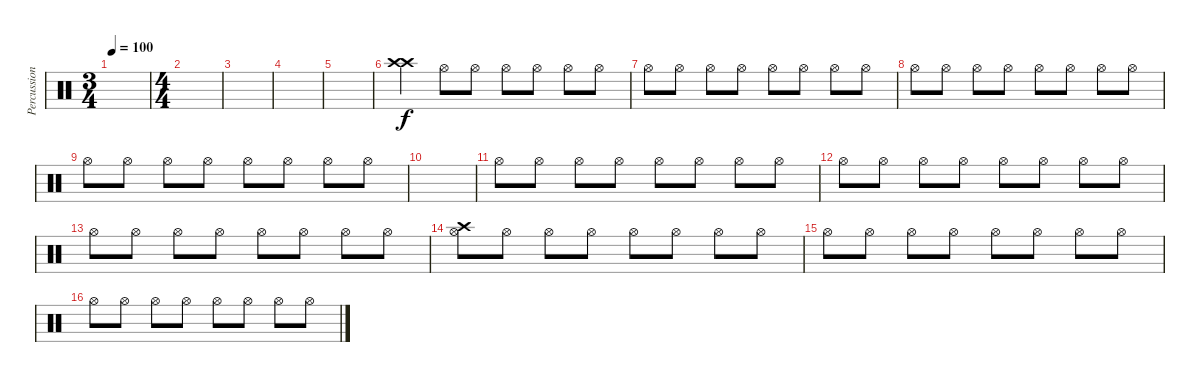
\track ("Percussions" "Percussion") {instrument percussion}
\staff {score}
\articulation defaults
\ts (3 4)
\tempo 100
\clef neutral
\ks c
|
\ts (4 4)
|
|
|
|
("Crash high (hit)" "Crash high (hit)").4 "Hi-Hat (open)".8 "Hi-Hat (open)".8 "Hi-Hat (open)".8 "Hi-Hat (open)".8 "Hi-Hat (open)".8 "Hi-Hat (open)".8 |
"Hi-Hat (open)".8 "Hi-Hat (open)".8 "Hi-Hat (open)".8 "Hi-Hat (open)".8 "Hi-Hat (open)".8 "Hi-Hat (open)".8 "Hi-Hat (open)".8 "Hi-Hat (open)".8 |
"Hi-Hat (open)".8 "Hi-Hat (open)".8 "Hi-Hat (open)".8 "Hi-Hat (open)".8 "Hi-Hat (open)".8 "Hi-Hat (open)".8 "Hi-Hat (open)".8 "Hi-Hat (open)".8 |
"Hi-Hat (open)".8 "Hi-Hat (open)".8 "Hi-Hat (open)".8 "Hi-Hat (open)".8 "Hi-Hat (open)".8 "Hi-Hat (open)".8 "Hi-Hat (open)".8 "Hi-Hat (open)".8 |
|
"Hi-Hat (open)".8 "Hi-Hat (open)".8 "Hi-Hat (open)".8 "Hi-Hat (open)".8 "Hi-Hat (open)".8 "Hi-Hat (open)".8 "Hi-Hat (open)".8 "Hi-Hat (open)".8 |
"Hi-Hat (open)".8 "Hi-Hat (open)".8 "Hi-Hat (open)".8 "Hi-Hat (open)".8 "Hi-Hat (open)".8 "Hi-Hat (open)".8 "Hi-Hat (open)".8 "Hi-Hat (open)".8 |
"Hi-Hat (open)".8 "Hi-Hat (open)".8 "Hi-Hat (open)".8 "Hi-Hat (open)".8 "Hi-Hat (open)".8 "Hi-Hat (open)".8 "Hi-Hat (open)".8 "Hi-Hat (open)".8 |
("Hi-Hat (open)" "Crash high (hit)").8 "Hi-Hat (open)".8 "Hi-Hat (open)".8 "Hi-Hat (open)".8 "Hi-Hat (open)".8 "Hi-Hat (open)".8 "Hi-Hat (open)".8 "Hi-Hat (open)".8 |
"Hi-Hat (open)".8 "Hi-Hat (open)".8 "Hi-Hat (open)".8 "Hi-Hat (open)".8 "Hi-Hat (open)".8 "Hi-Hat (open)".8 "Hi-Hat (open)".8 "Hi-Hat (open)".8 |
"Hi-Hat (open)".8 "Hi-Hat (open)".8 "Hi-Hat (open)".8 "Hi-Hat (open)".8 "Hi-Hat (open)".8 "Hi-Hat (open)".8 "Hi-Hat (open)".8 "Hi-Hat (open)".8
